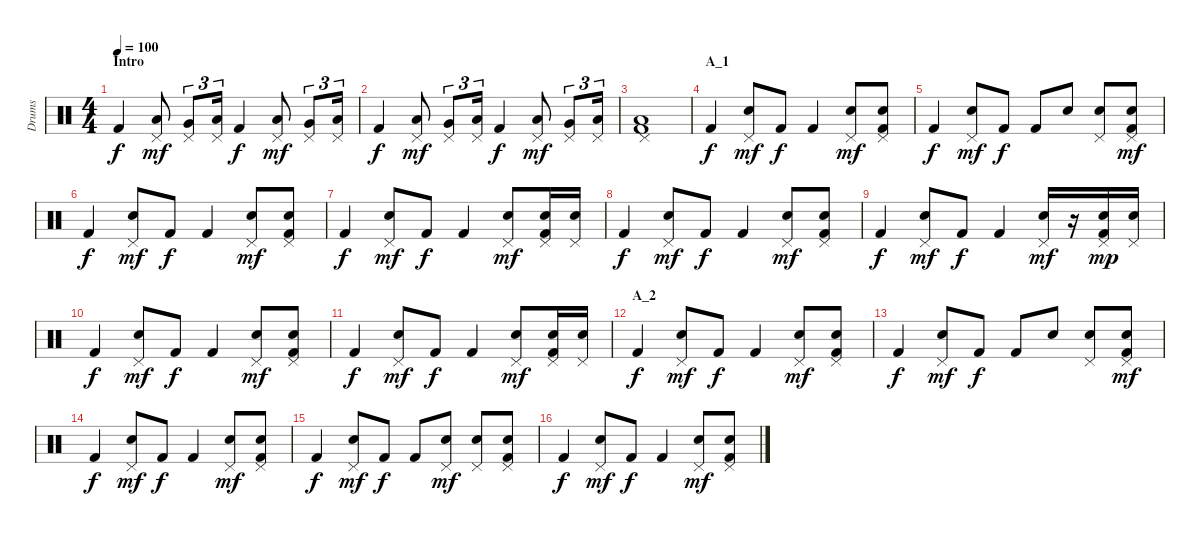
\track ("Drums" "Drums") {instrument percussion}
\staff {score}
\articulation defaults
\ts (4 4)
\section ("" "Intro")
\tempo 100
\clef neutral
\ks c "Kick (hit) 2".4{dy f}
("Pedal Hi-Hat (hit)" "Low Tom (hit)").8{dy mf} ("Pedal Hi-Hat (hit)" "Very Low Tom (hit)").8{tu (3 2)} ("Pedal Hi-Hat (hit)" "Low Floor Tom (hit)").16{tu (3 2)} "Kick (hit) 2".4{dy f} ("Pedal Hi-Hat (hit)" "Low Tom (hit)").8{dy mf} ("Pedal Hi-Hat (hit)" "Very Low Tom (hit)").8{tu (3 2)} ("Pedal Hi-Hat (hit)" "Low Floor Tom (hit)").16{tu (3 2)} |
"Kick (hit) 2".4{dy f} ("Pedal Hi-Hat (hit)" "Low Tom (hit)").8{dy mf} ("Pedal Hi-Hat (hit)" "Very Low Tom (hit)").8{tu (3 2)} ("Pedal Hi-Hat (hit)" "Low Floor Tom (hit)").16{tu (3 2)} "Kick (hit) 2".4{dy f} ("Pedal Hi-Hat (hit)" "Low Tom (hit)").8{dy mf} ("Pedal Hi-Hat (hit)" "Very Low Tom (hit)").8{tu (3 2)} ("Pedal Hi-Hat (hit)" "Low Floor Tom (hit)").16{tu (3 2)} |
("Pedal Hi-Hat (hit)" "Low Floor Tom (hit)" "Kick (hit) 2").1 |
\section ("" "A_1")
"Kick (hit) 2".4{dy f} ("Pedal Hi-Hat (hit)" "Electric Snare (hit)").8{dy mf} "Kick (hit) 2".8{dy f} "Kick (hit) 2".4 ("Pedal Hi-Hat (hit)" "Electric Snare (hit)").8{dy mf} ("Pedal Hi-Hat (hit)" "Electric Snare (hit)" "Kick (hit) 2").8 |
"Kick (hit) 2".4{dy f} ("Pedal Hi-Hat (hit)" "Electric Snare (hit)").8{dy mf} "Kick (hit) 2".8{dy f} "Kick (hit) 2".8 "Electric Snare (hit)".8 ("Pedal Hi-Hat (hit)" "Electric Snare (hit)").8 ("Pedal Hi-Hat (hit)" "Electric Snare (hit)" "Kick (hit) 2").8{dy mf} |
"Kick (hit) 2".4{dy f} ("Pedal Hi-Hat (hit)" "Electric Snare (hit)").8{dy mf} "Kick (hit) 2".8{dy f} "Kick (hit) 2".4 ("Pedal Hi-Hat (hit)" "Electric Snare (hit)").8{dy mf} ("Pedal Hi-Hat (hit)" "Electric Snare (hit)" "Kick (hit) 2").8 |
"Kick (hit) 2".4{dy f} ("Pedal Hi-Hat (hit)" "Electric Snare (hit)").8{dy mf} "Kick (hit) 2".8{dy f} "Kick (hit) 2".4 ("Pedal Hi-Hat (hit)" "Electric Snare (hit)").8{dy mf} ("Pedal Hi-Hat (hit)" "Electric Snare (hit)" "Kick (hit) 2").16 ("Pedal Hi-Hat (hit)" "Electric Snare (hit)").16 |
"Kick (hit) 2".4{dy f} ("Pedal Hi-Hat (hit)" "Electric Snare (hit)").8{dy mf} "Kick (hit) 2".8{dy f} "Kick (hit) 2".4 ("Pedal Hi-Hat (hit)" "Electric Snare (hit)").8{dy mf} ("Pedal Hi-Hat (hit)" "Electric Snare (hit)" "Kick (hit) 2").8 |
"Kick (hit) 2".4{dy f} ("Pedal Hi-Hat (hit)" "Electric Snare (hit)").8{dy mf} "Kick (hit) 2".8{dy f} "Kick (hit) 2".4 ("Pedal Hi-Hat (hit)" "Electric Snare (hit)").16{dy mf} r.16 ("Pedal Hi-Hat (hit)" "Electric Snare (hit)" "Kick (hit) 2").16{dy mp} ("Pedal Hi-Hat (hit)" "Electric Snare (hit)").16 |
"Kick (hit) 2".4{dy f} ("Pedal Hi-Hat (hit)" "Electric Snare (hit)").8{dy mf} "Kick (hit) 2".8{dy f} "Kick (hit) 2".4 ("Pedal Hi-Hat (hit)" "Electric Snare (hit)").8{dy mf} ("Pedal Hi-Hat (hit)" "Electric Snare (hit)" "Kick (hit) 2").8 |
"Kick (hit) 2".4{dy f} ("Pedal Hi-Hat (hit)" "Electric Snare (hit)").8{dy mf} "Kick (hit) 2".8{dy f} "Kick (hit) 2".4 ("Pedal Hi-Hat (hit)" "Electric Snare (hit)").8{dy mf} ("Pedal Hi-Hat (hit)" "Electric Snare (hit)" "Kick (hit) 2").16 ("Pedal Hi-Hat (hit)" "Electric Snare (hit)").16 |
\section ("" "A_2")
"Kick (hit) 2".4{dy f} ("Pedal Hi-Hat (hit)" "Electric Snare (hit)").8{dy mf} "Kick (hit) 2".8{dy f} "Kick (hit) 2".4 ("Pedal Hi-Hat (hit)" "Electric Snare (hit)").8{dy mf} ("Pedal Hi-Hat (hit)" "Electric Snare (hit)" "Kick (hit) 2").8 |
"Kick (hit) 2".4{dy f} ("Pedal Hi-Hat (hit)" "Electric Snare (hit)").8{dy mf} "Kick (hit) 2".8{dy f} "Kick (hit) 2".8 "Electric Snare (hit)".8 ("Pedal Hi-Hat (hit)" "Electric Snare (hit)").8 ("Pedal Hi-Hat (hit)" "Electric Snare (hit)" "Kick (hit) 2").8{dy mf} |
"Kick (hit) 2".4{dy f} ("Pedal Hi-Hat (hit)" "Electric Snare (hit)").8{dy mf} "Kick (hit) 2".8{dy f} "Kick (hit) 2".4 ("Pedal Hi-Hat (hit)" "Electric Snare (hit)").8{dy mf} ("Pedal Hi-Hat (hit)" "Electric Snare (hit)" "Kick (hit) 2").8 |
"Kick (hit) 2".4{dy f} ("Pedal Hi-Hat (hit)" "Electric Snare (hit)").8{dy mf} "Kick (hit) 2".8{dy f} "Kick (hit) 2".8 ("Pedal Hi-Hat (hit)" "Electric Snare (hit)").8{dy mf} ("Pedal Hi-Hat (hit)" "Electric Snare (hit)").8 ("Pedal Hi-Hat (hit)" "Electric Snare (hit)" "Kick (hit) 2").8 |
"Kick (hit) 2".4{dy f} ("Pedal Hi-Hat (hit)" "Electric Snare (hit)").8{dy mf} "Kick (hit) 2".8{dy f} "Kick (hit) 2".4 ("Pedal Hi-Hat (hit)" "Electric Snare (hit)").8{dy mf} ("Pedal Hi-Hat (hit)" "Electric Snare (hit)" "Kick (hit) 2").8
